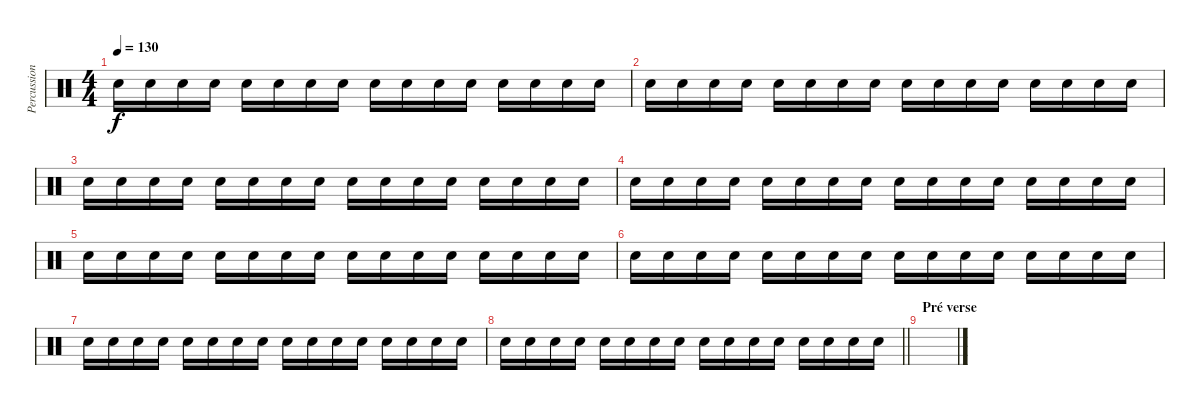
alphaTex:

\track ("Percussions" "Percussion") {instrument percussion}
\staff {score}
\articulation defaults
\ts (4 4)
\tempo 130
\clef neutral
\ks c "Snare (hit) 2".16{dy f volume 14} "Snare (hit) 2".16 "Snare (hit) 2".16 "Snare (hit) 2".16 "Snare (hit) 2".16 "Snare (hit) 2".16 "Snare (hit) 2".16 "Snare (hit) 2".16 "Snare (hit) 2".16 "Snare (hit) 2".16 "Snare (hit) 2".16 "Snare (hit) 2".16 "Snare (hit) 2".16 "Snare (hit) 2".16 "Snare (hit) 2".16 "Snare (hit) 2".16
|
"Snare (hit) 2".16 "Snare (hit) 2".16 "Snare (hit) 2".16 "Snare (hit) 2".16 "Snare (hit) 2".16 "Snare (hit) 2".16 "Snare (hit) 2".16 "Snare (hit) 2".16 "Snare (hit) 2".16 "Snare (hit) 2".16 "Snare (hit) 2".16 "Snare (hit) 2".16 "Snare (hit) 2".16 "Snare (hit) 2".16 "Snare (hit) 2".16 "Snare (hit) 2".16 |
"Snare (hit) 2".16 "Snare (hit) 2".16 "Snare (hit) 2".16 "Snare (hit) 2".16 "Snare (hit) 2".16 "Snare (hit) 2".16 "Snare (hit) 2".16 "Snare (hit) 2".16 "Snare (hit) 2".16 "Snare (hit) 2".16 "Snare (hit) 2".16 "Snare (hit) 2".16 "Snare (hit) 2".16 "Snare (hit) 2".16 "Snare (hit) 2".16 "Snare (hit) 2".16 |
"Snare (hit) 2".16 "Snare (hit) 2".16 "Snare (hit) 2".16 "Snare (hit) 2".16 "Snare (hit) 2".16 "Snare (hit) 2".16 "Snare (hit) 2".16 "Snare (hit) 2".16 "Snare (hit) 2".16 "Snare (hit) 2".16 "Snare (hit) 2".16 "Snare (hit) 2".16 "Snare (hit) 2".16 "Snare (hit) 2".16 "Snare (hit) 2".16 "Snare (hit) 2".16 |
"Snare (hit) 2".16 "Snare (hit) 2".16 "Snare (hit) 2".16 "Snare (hit) 2".16 "Snare (hit) 2".16 "Snare (hit) 2".16 "Snare (hit) 2".16 "Snare (hit) 2".16 "Snare (hit) 2".16 "Snare (hit) 2".16 "Snare (hit) 2".16 "Snare (hit) 2".16 "Snare (hit) 2".16 "Snare (hit) 2".16 "Snare (hit) 2".16 "Snare (hit) 2".16 |
"Snare (hit) 2".16 "Snare (hit) 2".16 "Snare (hit) 2".16 "Snare (hit) 2".16 "Snare (hit) 2".16 "Snare (hit) 2".16 "Snare (hit) 2".16 "Snare (hit) 2".16 "Snare (hit) 2".16 "Snare (hit) 2".16 "Snare (hit) 2".16 "Snare (hit) 2".16 "Snare (hit) 2".16 "Snare (hit) 2".16 "Snare (hit) 2".16 "Snare (hit) 2".16 |
"Snare (hit) 2".16 "Snare (hit) 2".16 "Snare (hit) 2".16 "Snare (hit) 2".16 "Snare (hit) 2".16 "Snare (hit) 2".16 "Snare (hit) 2".16 "Snare (hit) 2".16 "Snare (hit) 2".16 "Snare (hit) 2".16 "Snare (hit) 2".16 "Snare (hit) 2".16 "Snare (hit) 2".16 "Snare (hit) 2".16 "Snare (hit) 2".16 "Snare (hit) 2".16 |
\barLineRight lightlight "Snare (hit) 2".16 "Snare (hit) 2".16 "Snare (hit) 2".16 "Snare (hit) 2".16 "Snare (hit) 2".16 "Snare (hit) 2".16 "Snare (hit) 2".16 "Snare (hit) 2".16 "Snare (hit) 2".16 "Snare (hit) 2".16 "Snare (hit) 2".16 "Snare (hit) 2".16 "Snare (hit) 2".16 "Snare (hit) 2".16 "Snare (hit) 2".16 "Snare (hit) 2".16
|
\section ("" "Pré verse")
